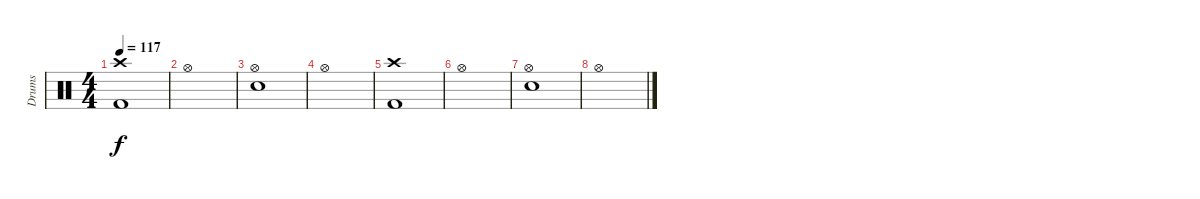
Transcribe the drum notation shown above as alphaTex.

\track ("Drums" "Drums") {instrument percussion}
\staff {score}
\articulation defaults
\ts (4 4)
\tempo 117
\clef neutral
\ks c
("Crash high (hit)" "Kick (hit) 2").1{dy f} |
"Hi-Hat (open)".1 |
("Hi-Hat (open)" "Snare (hit) 2").1 |
"Hi-Hat (open)".1 |
("Crash high (hit)" "Kick (hit) 2").1 |
"Hi-Hat (open)".1 |
("Hi-Hat (open)" "Snare (hit) 2").1 |
"Hi-Hat (open)".1
